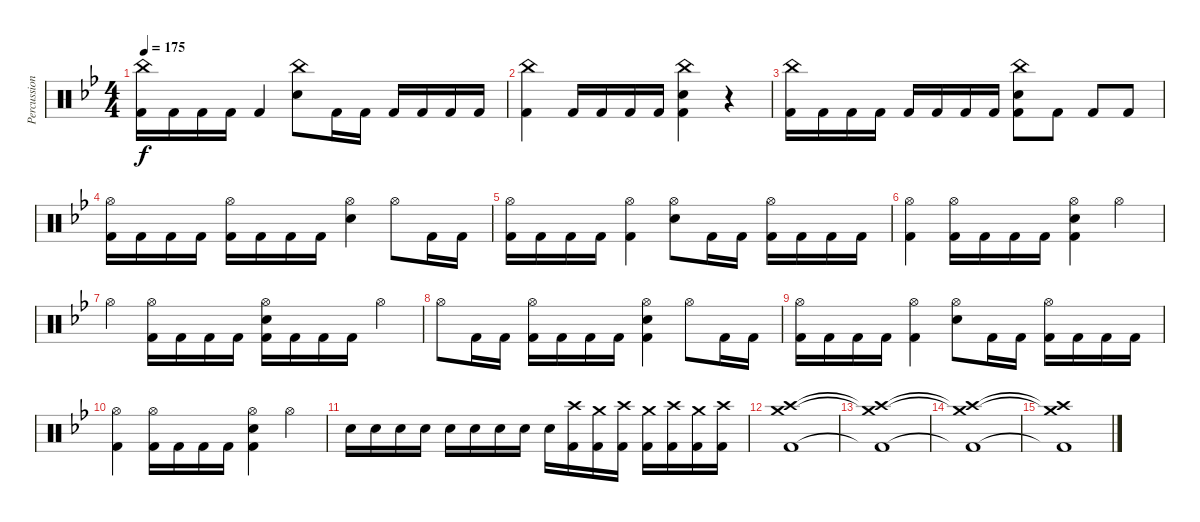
\track ("Percussion" "Percussion") {instrument percussion}
\staff {score}
\articulation defaults
\ts (4 4)
\tempo 175
\clef neutral
\ks bb
("China (hit)" "Kick (hit) 2").16{dy f} "Kick (hit) 2".16 "Kick (hit) 2".16 "Kick (hit) 2".16 "Kick (hit) 2".4 ("China (hit)" "Electric Snare (hit)").8 "Kick (hit) 2".16 "Kick (hit) 2".16 "Kick (hit) 2".16 "Kick (hit) 2".16 "Kick (hit) 2".16 "Kick (hit) 2".16 |
("China (hit)" "Kick (hit) 2").4 "Kick (hit) 2".16 "Kick (hit) 2".16 "Kick (hit) 2".16 "Kick (hit) 2".16 ("China (hit)" "Electric Snare (hit)" "Kick (hit) 2").4 r.4 |
("China (hit)" "Kick (hit) 2").16 "Kick (hit) 2".16 "Kick (hit) 2".16 "Kick (hit) 2".16 "Kick (hit) 2".16 "Kick (hit) 2".16 "Kick (hit) 2".16 "Kick (hit) 2".16 ("China (hit)" "Electric Snare (hit)" "Kick (hit) 2").8 "Kick (hit) 2".8 "Kick (hit) 2".8 "Kick (hit) 2".8 |
("Hi-Hat (open)" "Kick (hit) 2").16 "Kick (hit) 2".16 "Kick (hit) 2".16 "Kick (hit) 2".16 ("Hi-Hat (open)" "Kick (hit) 2").16 "Kick (hit) 2".16 "Kick (hit) 2".16 "Kick (hit) 2".16 ("Hi-Hat (open)" "Electric Snare (hit)").4 "Hi-Hat (open)".8 "Kick (hit) 2".16 "Kick (hit) 2".16 |
("Hi-Hat (open)" "Kick (hit) 2").16 "Kick (hit) 2".16 "Kick (hit) 2".16 "Kick (hit) 2".16 ("Hi-Hat (open)" "Kick (hit) 2").4 ("Hi-Hat (open)" "Electric Snare (hit)").8 "Kick (hit) 2".16 "Kick (hit) 2".16 ("Hi-Hat (open)" "Kick (hit) 2").16 "Kick (hit) 2".16 "Kick (hit) 2".16 "Kick (hit) 2".16 |
("Hi-Hat (open)" "Kick (hit) 2").4 ("Hi-Hat (open)" "Kick (hit) 2").16 "Kick (hit) 2".16 "Kick (hit) 2".16 "Kick (hit) 2".16 ("Hi-Hat (open)" "Electric Snare (hit)" "Kick (hit) 2").4 "Hi-Hat (open)".4 |
"Hi-Hat (open)".4 ("Hi-Hat (open)" "Kick (hit) 2").16 "Kick (hit) 2".16 "Kick (hit) 2".16 "Kick (hit) 2".16 ("Hi-Hat (open)" "Electric Snare (hit)" "Kick (hit) 2").16 "Kick (hit) 2".16 "Kick (hit) 2".16 "Kick (hit) 2".16 "Hi-Hat (open)".4 |
"Hi-Hat (open)".8 "Kick (hit) 2".16 "Kick (hit) 2".16 ("Hi-Hat (open)" "Kick (hit) 2").16 "Kick (hit) 2".16 "Kick (hit) 2".16 "Kick (hit) 2".16 ("Hi-Hat (open)" "Electric Snare (hit)" "Kick (hit) 2").4 "Hi-Hat (open)".8 "Kick (hit) 2".16 "Kick (hit) 2".16 |
("Hi-Hat (open)" "Kick (hit) 2").16 "Kick (hit) 2".16 "Kick (hit) 2".16 "Kick (hit) 2".16 ("Hi-Hat (open)" "Kick (hit) 2").4 ("Hi-Hat (open)" "Electric Snare (hit)").8 "Kick (hit) 2".16 "Kick (hit) 2".16 ("Hi-Hat (open)" "Kick (hit) 2").16 "Kick (hit) 2".16 "Kick (hit) 2".16 "Kick (hit) 2".16 |
("Hi-Hat (open)" "Kick (hit) 2").4 ("Hi-Hat (open)" "Kick (hit) 2").16 "Kick (hit) 2".16 "Kick (hit) 2".16 "Kick (hit) 2".16 ("Hi-Hat (open)" "Electric Snare (hit)" "Kick (hit) 2").4 "Hi-Hat (open)".4 |
"Electric Snare (hit)".16 "Electric Snare (hit)".16 "Electric Snare (hit)".16 "Electric Snare (hit)".16 "Electric Snare (hit)".16 "Electric Snare (hit)".16 "Electric Snare (hit)".16 "Electric Snare (hit)".16 "Electric Snare (hit)".16 ("Crash high (hit)" "Kick (hit) 2").16 ("Crash medium (hit)" "Kick (hit) 2").16 ("Crash high (hit)" "Kick (hit) 2").16 ("Crash medium (hit)" "Kick (hit) 2").16 ("Crash high (hit)" "Kick (hit) 2").16 ("Crash medium (hit)" "Kick (hit) 2").16 ("Crash high (hit)" "Kick (hit) 2").16 |
("Crash medium (hit)" "Crash high (hit)" "Kick (hit) 2").1{volume 0} |
("Crash medium (hit)"{t} "Crash high (hit)"{t} "Kick (hit) 2"{t}).1 |
("Crash medium (hit)"{t} "Crash high (hit)"{t} "Kick (hit) 2"{t}).1 |
("Crash medium (hit)"{t} "Crash high (hit)"{t} "Kick (hit) 2"{t}).1
